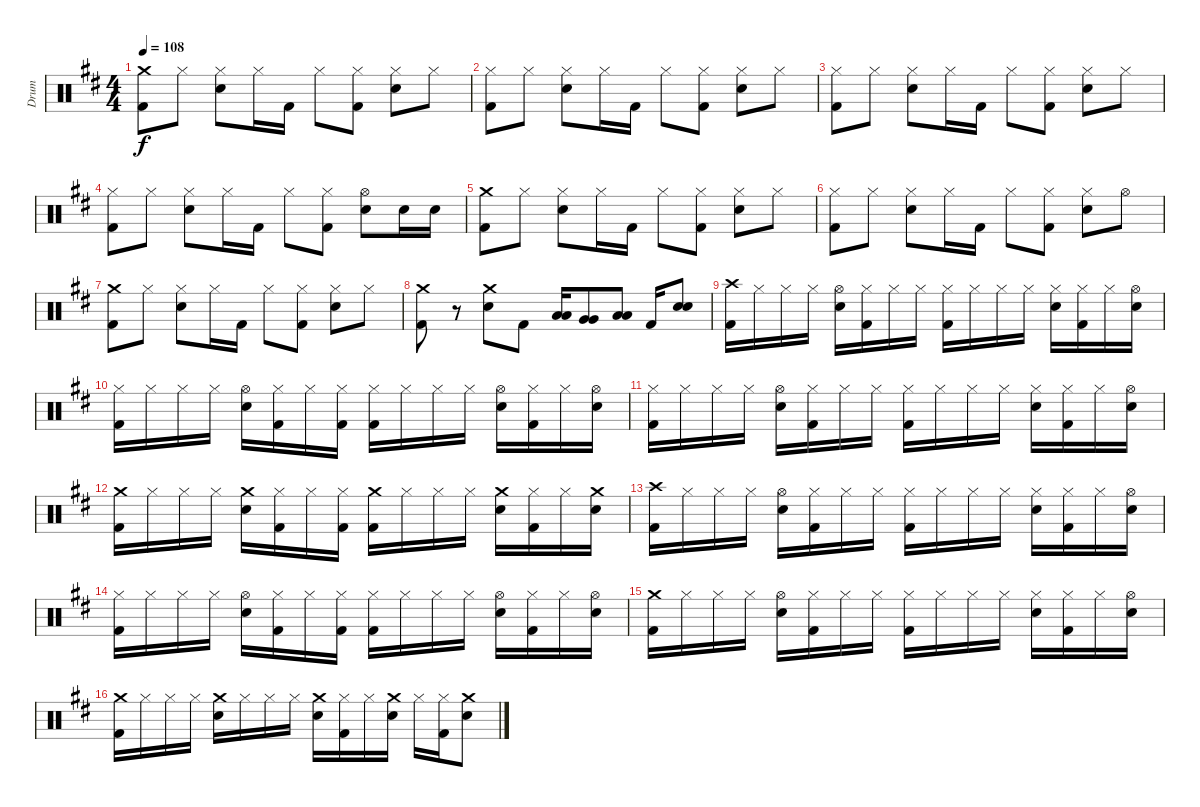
\track ("Drum" "Drum") {instrument percussion}
\staff {score}
\articulation defaults
\ts (4 4)
\tempo 108
\clef neutral
\ks d
("Crash medium (hit)" "Kick (hit) 2").8{dy f} "Hi-Hat (closed)".8 ("Hi-Hat (closed)" "Snare (hit) 2").8 "Hi-Hat (closed)".16 "Kick (hit) 2".16 "Hi-Hat (closed)".8 ("Hi-Hat (closed)" "Kick (hit) 2").8 ("Hi-Hat (closed)" "Snare (hit) 2").8 "Hi-Hat (closed)".8 |
("Hi-Hat (closed)" "Kick (hit) 2").8 "Hi-Hat (closed)".8 ("Hi-Hat (closed)" "Snare (hit) 2").8 "Hi-Hat (closed)".16 "Kick (hit) 2".16 "Hi-Hat (closed)".8 ("Hi-Hat (closed)" "Kick (hit) 2").8 ("Hi-Hat (closed)" "Snare (hit) 2").8 "Hi-Hat (closed)".8 |
("Hi-Hat (closed)" "Kick (hit) 2").8 "Hi-Hat (closed)".8 ("Hi-Hat (closed)" "Snare (hit) 2").8 "Hi-Hat (closed)".16 "Kick (hit) 2".16 "Hi-Hat (closed)".8 ("Hi-Hat (closed)" "Kick (hit) 2").8 ("Hi-Hat (closed)" "Snare (hit) 2").8 "Hi-Hat (closed)".8 |
("Hi-Hat (closed)" "Kick (hit) 2").8 "Hi-Hat (closed)".8 ("Hi-Hat (closed)" "Snare (hit) 2").8 "Hi-Hat (closed)".16 "Kick (hit) 2".16 "Hi-Hat (closed)".8 ("Hi-Hat (closed)" "Kick (hit) 2").8 ("Hi-Hat (open)" "Snare (hit) 2").8 "Snare (hit) 2".16 "Snare (hit) 2".16 |
("Crash medium (hit)" "Kick (hit) 2").8 "Hi-Hat (closed)".8 ("Hi-Hat (closed)" "Snare (hit) 2").8 "Hi-Hat (closed)".16 "Kick (hit) 2".16 "Hi-Hat (closed)".8 ("Hi-Hat (closed)" "Kick (hit) 2").8 ("Hi-Hat (closed)" "Snare (hit) 2").8 "Hi-Hat (closed)".8 |
("Hi-Hat (closed)" "Kick (hit) 2").8 "Hi-Hat (closed)".8 ("Hi-Hat (closed)" "Snare (hit) 2").8 "Hi-Hat (closed)".16 "Kick (hit) 2".16 "Hi-Hat (closed)".8 ("Hi-Hat (closed)" "Kick (hit) 2").8 ("Hi-Hat (closed)" "Snare (hit) 2").8 "Hi-Hat (open)".8 |
("Crash medium (hit)" "Kick (hit) 2").8 "Hi-Hat (closed)".8 ("Hi-Hat (closed)" "Snare (hit) 2").8 "Hi-Hat (closed)".16 "Kick (hit) 2".16 "Hi-Hat (closed)".8 ("Hi-Hat (closed)" "Kick (hit) 2").8 ("Hi-Hat (closed)" "Snare (hit) 2").8 "Hi-Hat (closed)".8 |
("Crash medium (hit)" "Kick (hit) 2").8 r.8 ("Crash medium (hit)" "Snare (hit) 2").8 "Kick (hit) 2".8 ("Low Tom (hit)" "Low Tom (hit)").16{bd 240} ("Very Low Tom (hit)" "Very Low Tom (hit)").8{bd 240} ("Low Floor Tom (hit)" "Low Floor Tom (hit)").8{bd 240} "Kick (hit) 2".16 ("Snare (hit) 2" "Snare (hit) 2").8{bd 240} |
("Crash high (hit)" "Kick (hit) 2").16 "Hi-Hat (closed)".16 "Hi-Hat (closed)".16 "Hi-Hat (closed)".16 ("Hi-Hat (open)" "Snare (hit) 2").16 ("Hi-Hat (closed)" "Kick (hit) 2").16 "Hi-Hat (closed)".16 "Hi-Hat (closed)".16 ("Hi-Hat (closed)" "Kick (hit) 2").16 "Hi-Hat (closed)".16 "Hi-Hat (closed)".16 "Hi-Hat (closed)".16 ("Hi-Hat (closed)" "Snare (hit) 2").16 ("Hi-Hat (closed)" "Kick (hit) 2").16 "Hi-Hat (closed)".16 ("Hi-Hat (open)" "Snare (hit) 2").16 |
("Hi-Hat (closed)" "Kick (hit) 2").16 "Hi-Hat (closed)".16 "Hi-Hat (closed)".16 "Hi-Hat (closed)".16 ("Hi-Hat (open)" "Snare (hit) 2").16 ("Hi-Hat (closed)" "Kick (hit) 2").16 "Hi-Hat (closed)".16 ("Hi-Hat (closed)" "Kick (hit) 2").16 ("Hi-Hat (closed)" "Kick (hit) 2").16 "Hi-Hat (closed)".16 "Hi-Hat (closed)".16 "Hi-Hat (closed)".16 ("Hi-Hat (open)" "Snare (hit) 2").16 ("Hi-Hat (closed)" "Kick (hit) 2").16 "Hi-Hat (closed)".16 ("Hi-Hat (open)" "Snare (hit) 2").16 |
("Hi-Hat (closed)" "Kick (hit) 2").16 "Hi-Hat (closed)".16 "Hi-Hat (closed)".16 "Hi-Hat (closed)".16 ("Hi-Hat (open)" "Snare (hit) 2").16 ("Hi-Hat (closed)" "Kick (hit) 2").16 "Hi-Hat (closed)".16 "Hi-Hat (closed)".16 ("Hi-Hat (closed)" "Kick (hit) 2").16 "Hi-Hat (closed)".16 "Hi-Hat (closed)".16 "Hi-Hat (closed)".16 ("Hi-Hat (closed)" "Snare (hit) 2").16 ("Hi-Hat (closed)" "Kick (hit) 2").16 "Hi-Hat (closed)".16 ("Hi-Hat (open)" "Snare (hit) 2").16 |
("Crash medium (hit)" "Kick (hit) 2").16 "Hi-Hat (closed)".16 "Hi-Hat (closed)".16 "Hi-Hat (closed)".16 ("Crash medium (hit)" "Snare (hit) 2").16 ("Hi-Hat (closed)" "Kick (hit) 2").16 "Hi-Hat (closed)".16 ("Hi-Hat (closed)" "Kick (hit) 2").16 ("Crash medium (hit)" "Kick (hit) 2").16 "Hi-Hat (closed)".16 "Hi-Hat (closed)".16 "Hi-Hat (closed)".16 ("Crash medium (hit)" "Snare (hit) 2").16 ("Hi-Hat (closed)" "Kick (hit) 2").16 "Hi-Hat (closed)".16 ("Crash medium (hit)" "Snare (hit) 2").16 |
("Crash high (hit)" "Kick (hit) 2").16 "Hi-Hat (closed)".16 "Hi-Hat (closed)".16 "Hi-Hat (closed)".16 ("Hi-Hat (open)" "Snare (hit) 2").16 ("Hi-Hat (closed)" "Kick (hit) 2").16 "Hi-Hat (closed)".16 "Hi-Hat (closed)".16 ("Hi-Hat (closed)" "Kick (hit) 2").16 "Hi-Hat (closed)".16 "Hi-Hat (closed)".16 "Hi-Hat (closed)".16 ("Hi-Hat (closed)" "Snare (hit) 2").16 ("Hi-Hat (closed)" "Kick (hit) 2").16 "Hi-Hat (closed)".16 ("Hi-Hat (open)" "Snare (hit) 2").16 |
("Hi-Hat (closed)" "Kick (hit) 2").16 "Hi-Hat (closed)".16 "Hi-Hat (closed)".16 "Hi-Hat (closed)".16 ("Hi-Hat (open)" "Snare (hit) 2").16 ("Hi-Hat (closed)" "Kick (hit) 2").16 "Hi-Hat (closed)".16 ("Hi-Hat (closed)" "Kick (hit) 2").16 ("Hi-Hat (closed)" "Kick (hit) 2").16 "Hi-Hat (closed)".16 "Hi-Hat (closed)".16 "Hi-Hat (closed)".16 ("Hi-Hat (open)" "Snare (hit) 2").16 ("Hi-Hat (closed)" "Kick (hit) 2").16 "Hi-Hat (closed)".16 ("Hi-Hat (open)" "Snare (hit) 2").16 |
("Crash medium (hit)" "Kick (hit) 2").16 "Hi-Hat (closed)".16 "Hi-Hat (closed)".16 "Hi-Hat (closed)".16 ("Hi-Hat (open)" "Snare (hit) 2").16 ("Hi-Hat (closed)" "Kick (hit) 2").16 "Hi-Hat (closed)".16 "Hi-Hat (closed)".16 ("Hi-Hat (closed)" "Kick (hit) 2").16 "Hi-Hat (closed)".16 "Hi-Hat (closed)".16 "Hi-Hat (closed)".16 ("Hi-Hat (closed)" "Snare (hit) 2").16 ("Hi-Hat (closed)" "Kick (hit) 2").16 "Hi-Hat (closed)".16 ("Hi-Hat (open)" "Snare (hit) 2").16 |
("Crash medium (hit)" "Kick (hit) 2").16 "Hi-Hat (closed)".16 "Hi-Hat (closed)".16 "Hi-Hat (closed)".16 ("Crash medium (hit)" "Snare (hit) 2").16 "Hi-Hat (closed)".16 "Hi-Hat (closed)".16 "Hi-Hat (closed)".16 ("Crash medium (hit)" "Snare (hit) 2").16 ("Hi-Hat (closed)" "Kick (hit) 2").16 "Hi-Hat (closed)".16 ("Crash medium (hit)" "Snare (hit) 2").16 "Hi-Hat (closed)".16 ("Hi-Hat (closed)" "Kick (hit) 2").16 ("Crash medium (hit)" "Snare (hit) 2").8
